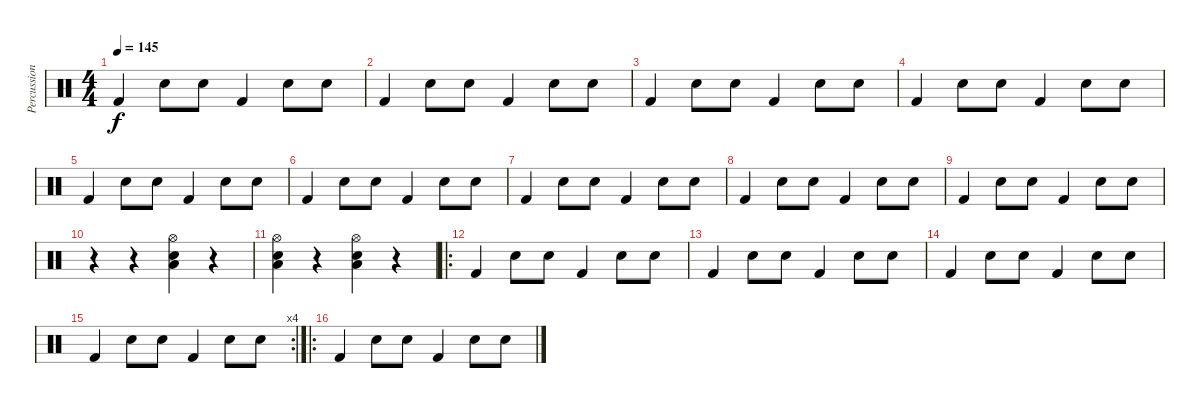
\track ("Percussions" "Percussion") {instrument percussion}
\staff {score}
\articulation defaults
\ts (4 4)
\tempo 145
\clef neutral
\ks c "Kick (hit) 2".4{dy f} "Snare (hit) 2".8 "Snare (hit) 2".8 "Kick (hit) 2".4 "Snare (hit) 2".8 "Snare (hit) 2".8
|
"Kick (hit) 2".4 "Snare (hit) 2".8 "Snare (hit) 2".8 "Kick (hit) 2".4 "Snare (hit) 2".8 "Snare (hit) 2".8 |
"Kick (hit) 2".4 "Snare (hit) 2".8 "Snare (hit) 2".8 "Kick (hit) 2".4 "Snare (hit) 2".8 "Snare (hit) 2".8 |
"Kick (hit) 2".4 "Snare (hit) 2".8 "Snare (hit) 2".8 "Kick (hit) 2".4 "Snare (hit) 2".8 "Snare (hit) 2".8 |
"Kick (hit) 2".4 "Snare (hit) 2".8 "Snare (hit) 2".8 "Kick (hit) 2".4 "Snare (hit) 2".8 "Snare (hit) 2".8 |
"Kick (hit) 2".4 "Snare (hit) 2".8 "Snare (hit) 2".8 "Kick (hit) 2".4 "Snare (hit) 2".8 "Snare (hit) 2".8 |
"Kick (hit) 2".4 "Snare (hit) 2".8 "Snare (hit) 2".8 "Kick (hit) 2".4 "Snare (hit) 2".8 "Snare (hit) 2".8 |
"Kick (hit) 2".4 "Snare (hit) 2".8 "Snare (hit) 2".8 "Kick (hit) 2".4 "Snare (hit) 2".8 "Snare (hit) 2".8 |
"Kick (hit) 2".4 "Snare (hit) 2".8 "Snare (hit) 2".8 "Kick (hit) 2".4 "Snare (hit) 2".8 "Snare (hit) 2".8 |
r.4 r.4 ("Hi-Hat (open)" "Snare (hit) 2" "Low Tom (hit)").4 r.4 |
("Hi-Hat (open)" "Snare (hit) 2" "Low Tom (hit)").4 r.4 ("Hi-Hat (open)" "Snare (hit) 2" "Low Tom (hit)").4 r.4 |
\ro "Kick (hit) 2".4 "Snare (hit) 2".8 "Snare (hit) 2".8 "Kick (hit) 2".4 "Snare (hit) 2".8 "Snare (hit) 2".8
|
"Kick (hit) 2".4 "Snare (hit) 2".8 "Snare (hit) 2".8 "Kick (hit) 2".4 "Snare (hit) 2".8 "Snare (hit) 2".8 |
"Kick (hit) 2".4 "Snare (hit) 2".8 "Snare (hit) 2".8 "Kick (hit) 2".4 "Snare (hit) 2".8 "Snare (hit) 2".8 |
\rc 4 "Kick (hit) 2".4 "Snare (hit) 2".8 "Snare (hit) 2".8 "Kick (hit) 2".4 "Snare (hit) 2".8 "Snare (hit) 2".8
|
\ro "Kick (hit) 2".4 "Snare (hit) 2".8 "Snare (hit) 2".8 "Kick (hit) 2".4 "Snare (hit) 2".8 "Snare (hit) 2".8
